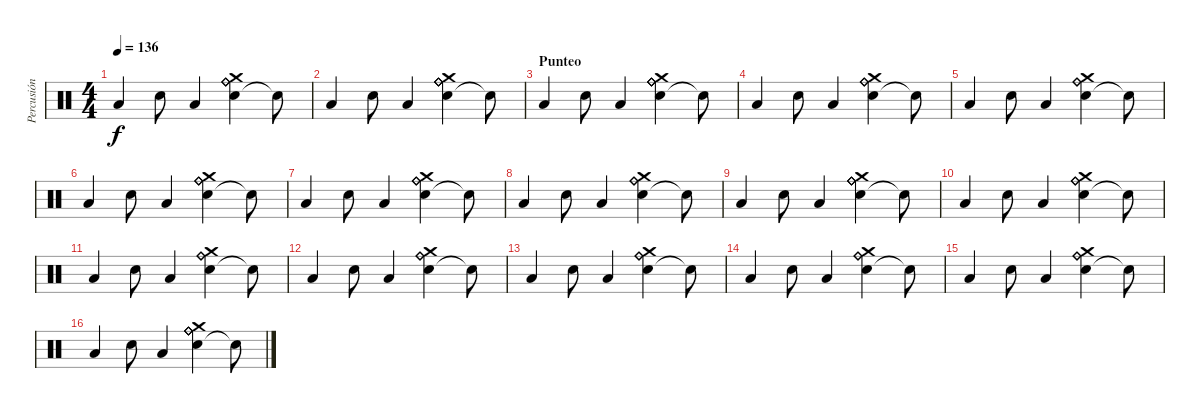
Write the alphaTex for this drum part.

\track ("Percusión" "Percusión") {instrument percussion}
\staff {score}
\articulation defaults
\ts (4 4)
\tempo 136
\clef neutral
\ks c "Low Tom (hit)".4{dy f} "Electric Snare (hit)".8 "Low Tom (hit)".4
("Electric Snare (hit)" "Crash medium (hit)" "Ride (bell)" "Ride (bell)" "Ride (bell)" "Ride (bell)").4 "Snare (hit)"{t}.8 |
"Low Tom (hit)".4 "Electric Snare (hit)".8 "Low Tom (hit)".4 ("Electric Snare (hit)" "Crash medium (hit)" "Ride (bell)" "Ride (bell)" "Ride (bell)" "Ride (bell)").4 "Snare (hit)"{t}.8 |
\section ("" "Punteo")
"Low Tom (hit)".4 "Electric Snare (hit)".8 "Low Tom (hit)".4 ("Electric Snare (hit)" "Crash medium (hit)" "Ride (bell)" "Ride (bell)" "Ride (bell)" "Ride (bell)").4 "Snare (hit)"{t}.8 |
"Low Tom (hit)".4 "Electric Snare (hit)".8 "Low Tom (hit)".4 ("Electric Snare (hit)" "Crash medium (hit)" "Ride (bell)" "Ride (bell)" "Ride (bell)" "Ride (bell)").4 "Snare (hit)"{t}.8 |
"Low Tom (hit)".4 "Electric Snare (hit)".8 "Low Tom (hit)".4 ("Electric Snare (hit)" "Crash medium (hit)" "Ride (bell)" "Ride (bell)" "Ride (bell)" "Ride (bell)").4 "Snare (hit)"{t}.8 |
"Low Tom (hit)".4 "Electric Snare (hit)".8 "Low Tom (hit)".4 ("Electric Snare (hit)" "Crash medium (hit)" "Ride (bell)" "Ride (bell)" "Ride (bell)" "Ride (bell)").4 "Snare (hit)"{t}.8 |
"Low Tom (hit)".4 "Electric Snare (hit)".8 "Low Tom (hit)".4 ("Electric Snare (hit)" "Crash medium (hit)" "Ride (bell)" "Ride (bell)" "Ride (bell)" "Ride (bell)").4 "Snare (hit)"{t}.8 |
"Low Tom (hit)".4 "Electric Snare (hit)".8 "Low Tom (hit)".4 ("Electric Snare (hit)" "Crash medium (hit)" "Ride (bell)" "Ride (bell)" "Ride (bell)" "Ride (bell)").4 "Snare (hit)"{t}.8 |
"Low Tom (hit)".4 "Electric Snare (hit)".8 "Low Tom (hit)".4 ("Electric Snare (hit)" "Crash medium (hit)" "Ride (bell)" "Ride (bell)" "Ride (bell)" "Ride (bell)").4 "Snare (hit)"{t}.8 |
"Low Tom (hit)".4 "Electric Snare (hit)".8 "Low Tom (hit)".4 ("Electric Snare (hit)" "Crash medium (hit)" "Ride (bell)" "Ride (bell)" "Ride (bell)" "Ride (bell)").4 "Snare (hit)"{t}.8 |
"Low Tom (hit)".4 "Electric Snare (hit)".8 "Low Tom (hit)".4 ("Electric Snare (hit)" "Crash medium (hit)" "Ride (bell)" "Ride (bell)" "Ride (bell)" "Ride (bell)").4 "Snare (hit)"{t}.8 |
"Low Tom (hit)".4 "Electric Snare (hit)".8 "Low Tom (hit)".4 ("Electric Snare (hit)" "Crash medium (hit)" "Ride (bell)" "Ride (bell)" "Ride (bell)" "Ride (bell)").4 "Snare (hit)"{t}.8 |
"Low Tom (hit)".4 "Electric Snare (hit)".8 "Low Tom (hit)".4 ("Electric Snare (hit)" "Crash medium (hit)" "Ride (bell)" "Ride (bell)" "Ride (bell)" "Ride (bell)").4 "Snare (hit)"{t}.8 |
"Low Tom (hit)".4 "Electric Snare (hit)".8 "Low Tom (hit)".4 ("Electric Snare (hit)" "Crash medium (hit)" "Ride (bell)" "Ride (bell)" "Ride (bell)" "Ride (bell)").4 "Snare (hit)"{t}.8 |
"Low Tom (hit)".4 "Electric Snare (hit)".8 "Low Tom (hit)".4 ("Electric Snare (hit)" "Crash medium (hit)" "Ride (bell)" "Ride (bell)" "Ride (bell)" "Ride (bell)").4 "Snare (hit)"{t}.8 |
"Low Tom (hit)".4 "Electric Snare (hit)".8 "Low Tom (hit)".4 ("Electric Snare (hit)" "Crash medium (hit)" "Ride (bell)" "Ride (bell)" "Ride (bell)" "Ride (bell)").4 "Snare (hit)"{t}.8
